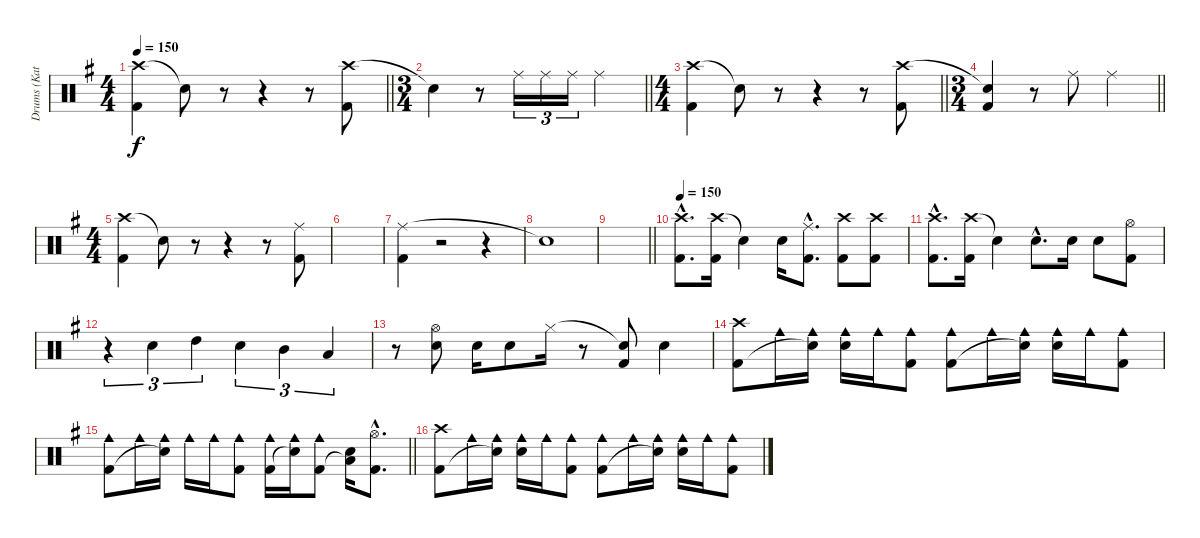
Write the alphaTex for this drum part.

\track ("Drums (Katsuji)" "Drums (Kat") {instrument percussion}
\staff {score}
\articulation defaults
\ts (4 4)
\tempo 150
\tempo 120
\tempo 150
\clef neutral
\barLineRight lightlight
\ks g
("Crash high (hit)" "Kick (hit) 2").4{dy f} "Snare (hit)"{t}.8 r.8 r.4 r.8 ("Crash high (hit)" "Kick (hit) 2").8 |
\ts (3 4)
\barLineRight lightlight "Snare (hit)"{t}.4
r.8 "Ride (middle)".16{tu (3 2)} "Ride (middle)".16{tu (3 2)} "Ride (middle)".16{tu (3 2)} "Ride (middle)".4 |
\ts (4 4)
\barLineRight lightlight
("Crash high (hit)" "Kick (hit) 2").4 "Snare (hit)"{t}.8 r.8 r.4 r.8 ("Crash high (hit)" "Kick (hit) 2").8 |
\ts (3 4)
\barLineRight lightlight
("Snare (hit)"{t} "Kick (hit) 2").4 r.8 "Ride (middle)".8 "Ride (middle)".4 |
\ts (4 4)
("Crash high (hit)" "Kick (hit) 2").4 "Snare (hit)"{t}.8 r.8 r.4 r.8 ("Ride (middle)" "Kick (hit) 2").8 |
|
("Ride (middle)" "Kick (hit) 2").4 r.2 r.4 |
"Snare (hit)"{t}.1 |
\barLineRight lightlight
|
\tempo 150
("Crash high (hit)"{hac} "Kick (hit) 2"{hac}).8{d} ("Crash high (hit)" "Kick (hit) 2").16 "Snare (hit)"{t}.4 "Snare (hit) 2".16 ("Ride (middle)"{hac} "Kick (hit) 2"{hac}).8{d} ("Crash high (hit)" "Kick (hit) 2").8 ("Crash high (hit)" "Kick (hit) 2").8 |
("Crash high (hit)"{hac} "Kick (hit) 2"{hac}).8{d} ("Crash high (hit)" "Kick (hit) 2").16 "Snare (hit)"{t}.4 "Snare (hit) 2"{hac}.8{d} "Snare (hit) 2".16 "Snare (hit) 2".8 ("Hi-Hat (open)" "Kick (hit) 2").8 |
r.4{tu (3 2)} "Snare (hit) 2".4{tu (3 2)} "High Tom (hit)".4{tu (3 2)} "Snare (hit) 2".4{tu (3 2)} "Mid Tom (hit)".4{tu (3 2)} "Low Tom (hit)".4{tu (3 2)} |
r.8 ("Hi-Hat (open)" "Snare (hit) 2").8 "Snare (hit) 2".16 "Snare (hit) 2".8 "Hi-Hat (closed)".16 r.8 ("Snare (hit)"{t} "Kick (hit) 2").8 "Snare (hit) 2".4 |
("Crash high (hit)" "Kick (hit) 2").8 "Cowbell medium (hit)".16 ("Cowbell medium (hit)" "Snare (hit)"{t}).16 ("Cowbell medium (hit)" "Snare (hit) 2").16 "Cowbell medium (hit)".16 ("Cowbell medium (hit)" "Kick (hit) 2").8 ("Cowbell medium (hit)" "Kick (hit) 2").8 "Cowbell medium (hit)".16 ("Cowbell medium (hit)" "Snare (hit)"{t}).16 ("Cowbell medium (hit)" "Snare (hit) 2").16 "Cowbell medium (hit)".16 ("Cowbell medium (hit)" "Kick (hit) 2").8 |
\barLineRight lightlight
("Cowbell medium (hit)" "Kick (hit) 2").8 "Cowbell medium (hit)".16 ("Cowbell medium (hit)" "Snare (hit)"{t}).16 "Cowbell medium (hit)".16 "Cowbell medium (hit)".16 ("Cowbell medium (hit)" "Kick (hit) 2").8 ("Cowbell medium (hit)" "Kick (hit) 2").16 ("Cowbell medium (hit)" "Snare (hit)"{t}).16 ("Cowbell medium (hit)" "Kick (hit) 2").8 ("Snare (hit) 2" "Low Floor Tom (hit)"{t}).16 ("Hi-Hat (open)"{hac} "Kick (hit) 2"{hac}).8{d} |
("Crash high (hit)" "Kick (hit) 2").8 "Cowbell medium (hit)".16 ("Cowbell medium (hit)" "Snare (hit)"{t}).16 ("Cowbell medium (hit)" "Snare (hit) 2").16 "Cowbell medium (hit)".16 ("Cowbell medium (hit)" "Kick (hit) 2").8 ("Cowbell medium (hit)" "Kick (hit) 2").8 "Cowbell medium (hit)".16 ("Cowbell medium (hit)" "Snare (hit)"{t}).16 ("Cowbell medium (hit)" "Snare (hit) 2").16 "Cowbell medium (hit)".16 ("Cowbell medium (hit)" "Kick (hit) 2").8
